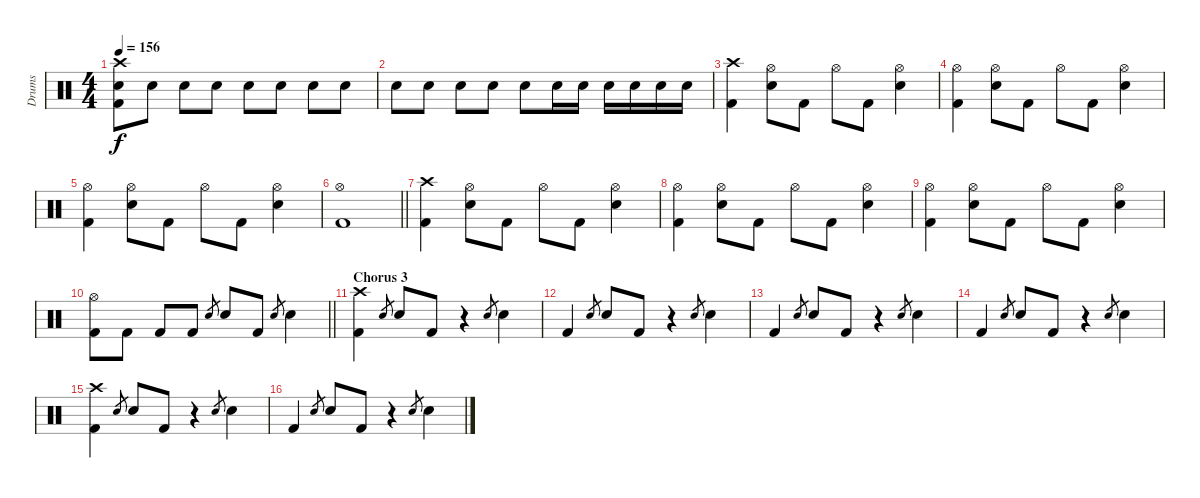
\track ("Drums" "Drums") {instrument percussion}
\staff {score}
\articulation defaults
\ts (4 4)
\tempo 156
\clef neutral
\ks c
("Crash high (hit)" "Electric Snare (hit)" "Kick (hit) 2").8{dy f} "Electric Snare (hit)".8 "Electric Snare (hit)".8 "Electric Snare (hit)".8 "Electric Snare (hit)".8 "Electric Snare (hit)".8 "Electric Snare (hit)".8 "Electric Snare (hit)".8 |
"Electric Snare (hit)".8 "Electric Snare (hit)".8 "Electric Snare (hit)".8 "Electric Snare (hit)".8 "Electric Snare (hit)".8 "Electric Snare (hit)".16 "Electric Snare (hit)".16 "Electric Snare (hit)".16 "Electric Snare (hit)".16 "Electric Snare (hit)".16 "Electric Snare (hit)".16 |
("Crash high (hit)" "Kick (hit) 2").4 ("Hi-Hat (open)" "Electric Snare (hit)").8 "Kick (hit) 2".8 "Hi-Hat (open)".8 "Kick (hit) 2".8 ("Hi-Hat (open)" "Electric Snare (hit)").4 |
("Hi-Hat (open)" "Kick (hit) 2").4 ("Hi-Hat (open)" "Electric Snare (hit)").8 "Kick (hit) 2".8 "Hi-Hat (open)".8 "Kick (hit) 2".8 ("Hi-Hat (open)" "Electric Snare (hit)").4 |
("Hi-Hat (open)" "Kick (hit) 2").4 ("Hi-Hat (open)" "Electric Snare (hit)").8 "Kick (hit) 2".8 "Hi-Hat (open)".8 "Kick (hit) 2".8 ("Hi-Hat (open)" "Electric Snare (hit)").4 |
\barLineRight lightlight
("Hi-Hat (open)" "Kick (hit) 2").1 |
("Crash high (hit)" "Kick (hit) 2").4 ("Hi-Hat (open)" "Electric Snare (hit)").8 "Kick (hit) 2".8 "Hi-Hat (open)".8 "Kick (hit) 2".8 ("Hi-Hat (open)" "Electric Snare (hit)").4 |
("Hi-Hat (open)" "Kick (hit) 2").4 ("Hi-Hat (open)" "Electric Snare (hit)").8 "Kick (hit) 2".8 "Hi-Hat (open)".8 "Kick (hit) 2".8 ("Hi-Hat (open)" "Electric Snare (hit)").4 |
("Hi-Hat (open)" "Kick (hit) 2").4 ("Hi-Hat (open)" "Electric Snare (hit)").8 "Kick (hit) 2".8 "Hi-Hat (open)".8 "Kick (hit) 2".8 ("Hi-Hat (open)" "Electric Snare (hit)").4 |
\barLineRight lightlight
("Hi-Hat (open)" "Kick (hit) 2").8 "Kick (hit) 2".8 "Kick (hit) 2".8 "Kick (hit) 2".8 "Electric Snare (hit)".8{gr} "Electric Snare (hit)".8 "Kick (hit) 2".8 "Electric Snare (hit)".8{gr} "Electric Snare (hit)".4 |
\section ("" "Chorus 3")
("Crash high (hit)" "Kick (hit) 2").4 "Electric Snare (hit)".8{gr} "Electric Snare (hit)".8 "Kick (hit) 2".8 r.4 "Electric Snare (hit)".8{gr} "Electric Snare (hit)".4 |
"Kick (hit) 2".4 "Electric Snare (hit)".8{gr} "Electric Snare (hit)".8 "Kick (hit) 2".8 r.4 "Electric Snare (hit)".8{gr} "Electric Snare (hit)".4 |
"Kick (hit) 2".4 "Electric Snare (hit)".8{gr} "Electric Snare (hit)".8 "Kick (hit) 2".8 r.4 "Electric Snare (hit)".8{gr} "Electric Snare (hit)".4 |
"Kick (hit) 2".4 "Electric Snare (hit)".8{gr} "Electric Snare (hit)".8 "Kick (hit) 2".8 r.4 "Electric Snare (hit)".8{gr} "Electric Snare (hit)".4 |
("Crash high (hit)" "Kick (hit) 2").4 "Electric Snare (hit)".8{gr} "Electric Snare (hit)".8 "Kick (hit) 2".8 r.4 "Electric Snare (hit)".8{gr} "Electric Snare (hit)".4 |
"Kick (hit) 2".4 "Electric Snare (hit)".8{gr} "Electric Snare (hit)".8 "Kick (hit) 2".8 r.4 "Electric Snare (hit)".8{gr} "Electric Snare (hit)".4
